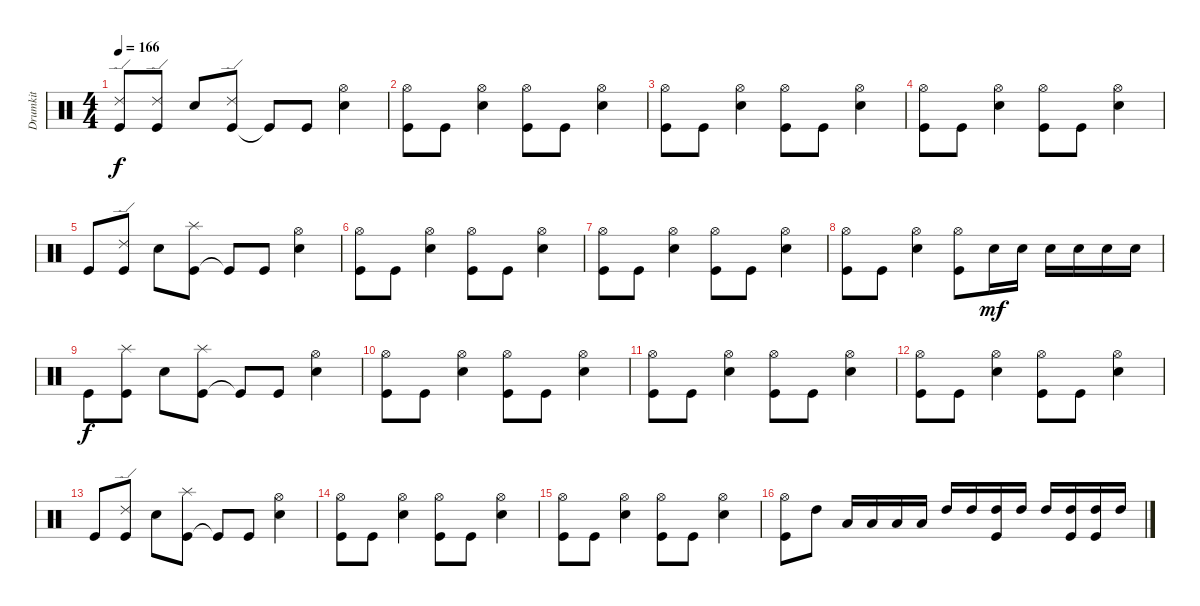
\track ("Drumkit" "Drumkit") {instrument percussion}
\staff {score}
\articulation defaults
\ts (4 4)
\tempo 166
\clef neutral
\ks c
("Kick (hit)" "Ride (edge) 2").8{dy f} ("Kick (hit)" "Ride (edge) 2").8 "Snare (hit) 2".8 ("Kick (hit)" "Ride (edge) 2").8 "Kick (hit)"{t}.8 "Kick (hit)".8 ("Snare (hit) 2" "Hi-Hat (open)").4 |
("Kick (hit)" "Hi-Hat (open)").8 "Kick (hit)".8 ("Snare (hit) 2" "Hi-Hat (open)").4 ("Kick (hit)" "Hi-Hat (open)").8 "Kick (hit)".8 ("Snare (hit) 2" "Hi-Hat (open)").4 |
("Kick (hit)" "Hi-Hat (open)").8 "Kick (hit)".8 ("Snare (hit) 2" "Hi-Hat (open)").4 ("Hi-Hat (open)" "Kick (hit)").8 "Kick (hit)".8 ("Snare (hit) 2" "Hi-Hat (open)").4 |
("Kick (hit)" "Hi-Hat (open)").8 "Kick (hit)".8 ("Snare (hit) 2" "Hi-Hat (open)").4 ("Hi-Hat (open)" "Kick (hit)").8 "Kick (hit)".8 ("Snare (hit) 2" "Hi-Hat (open)").4 |
"Kick (hit)".8 ("Kick (hit)" "Ride (edge) 2").8 "Snare (hit) 2".8 ("Kick (hit)" "Splash (hit)").8 "Kick (hit)"{t}.8 "Kick (hit)".8 ("Snare (hit) 2" "Hi-Hat (open)").4 |
("Kick (hit)" "Hi-Hat (open)").8 "Kick (hit)".8 ("Snare (hit) 2" "Hi-Hat (open)").4 ("Hi-Hat (open)" "Kick (hit)").8 "Kick (hit)".8 ("Snare (hit) 2" "Hi-Hat (open)").4 |
("Kick (hit)" "Hi-Hat (open)").8 "Kick (hit)".8 ("Snare (hit) 2" "Hi-Hat (open)").4 ("Hi-Hat (open)" "Kick (hit)").8 "Kick (hit)".8 ("Snare (hit) 2" "Hi-Hat (open)").4 |
("Kick (hit)" "Hi-Hat (open)").8 "Kick (hit)".8 ("Snare (hit) 2" "Hi-Hat (open)").4 ("Hi-Hat (open)" "Kick (hit)").8 "Snare (hit) 2".16{dy mf} "Snare (hit) 2".16 "Snare (hit) 2".16 "Snare (hit) 2".16 "Snare (hit) 2".16 "Snare (hit) 2".16 |
"Kick (hit)".8{dy f} ("Splash (hit)" "Kick (hit)").8 "Snare (hit) 2".8 ("Kick (hit)" "Splash (hit)").8 "Kick (hit)"{t}.8 "Kick (hit)".8 ("Snare (hit) 2" "Hi-Hat (open)").4 |
("Kick (hit)" "Hi-Hat (open)").8 "Kick (hit)".8 ("Snare (hit) 2" "Hi-Hat (open)").4 ("Hi-Hat (open)" "Kick (hit)").8 "Kick (hit)".8 ("Snare (hit) 2" "Hi-Hat (open)").4 |
("Kick (hit)" "Hi-Hat (open)").8 "Kick (hit)".8 ("Snare (hit) 2" "Hi-Hat (open)").4 ("Hi-Hat (open)" "Kick (hit)").8 "Kick (hit)".8 ("Snare (hit) 2" "Hi-Hat (open)").4 |
("Kick (hit)" "Hi-Hat (open)").8 "Kick (hit)".8 ("Snare (hit) 2" "Hi-Hat (open)").4 ("Hi-Hat (open)" "Kick (hit)").8 "Kick (hit)".8 ("Snare (hit) 2" "Hi-Hat (open)").4 |
"Kick (hit)".8 ("Kick (hit)" "Ride (edge) 2").8 "Snare (hit) 2".8 ("Kick (hit)" "Splash (hit)").8 "Kick (hit)"{t}.8 "Kick (hit)".8 ("Snare (hit) 2" "Hi-Hat (open)").4 |
("Kick (hit)" "Hi-Hat (open)").8 "Kick (hit)".8 ("Snare (hit) 2" "Hi-Hat (open)").4 ("Hi-Hat (open)" "Kick (hit)").8 "Kick (hit)".8 ("Snare (hit) 2" "Hi-Hat (open)").4 |
("Kick (hit)" "Hi-Hat (open)").8 "Kick (hit)".8 ("Snare (hit) 2" "Hi-Hat (open)").4 ("Hi-Hat (open)" "Kick (hit)").8 "Kick (hit)".8 ("Snare (hit) 2" "Hi-Hat (open)").4 |
("Kick (hit)" "Hi-Hat (open)").8 "High Tom (hit)".8 "Low Tom (hit)".16 "Low Tom (hit)".16 "Low Floor Tom (hit)".16 "Low Floor Tom (hit)".16 "High Tom (hit)".16 "High Tom (hit)".16 ("Kick (hit)" "High Tom (hit)").16 "High Tom (hit)".16 "High Tom (hit)".16 ("High Tom (hit)" "Kick (hit)").16 ("High Tom (hit)" "Kick (hit)").16 "High Tom (hit)".16
